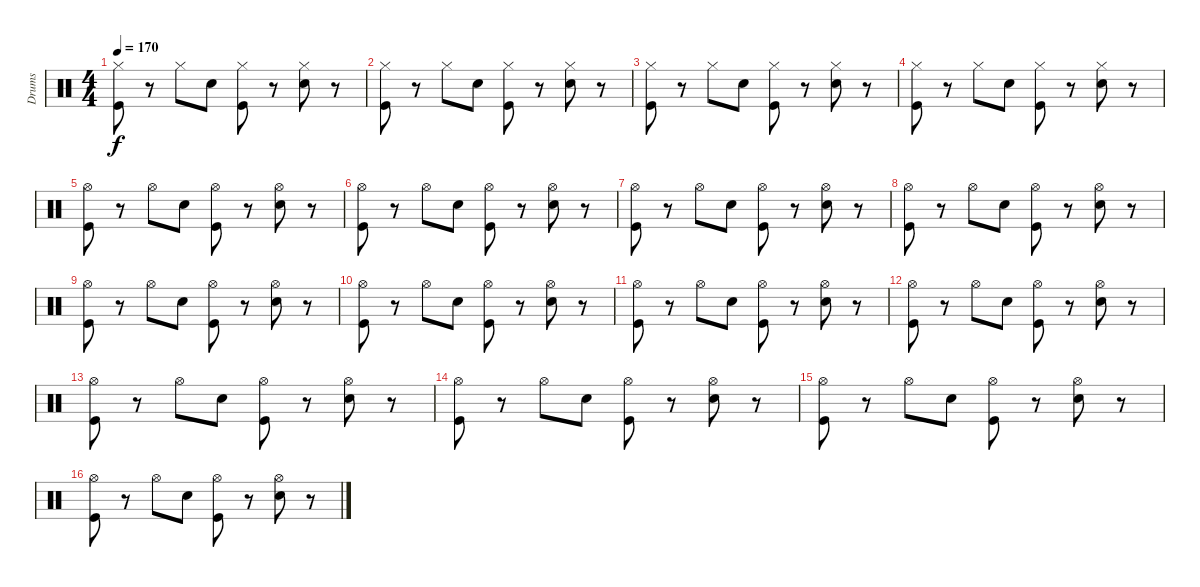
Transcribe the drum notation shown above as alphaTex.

\track ("Drums" "Drums") {instrument percussion}
\staff {score}
\articulation defaults
\ts (4 4)
\tempo 170
\clef neutral
\ks c
("Kick (hit)" "Hi-Hat (closed)").8{dy f} r.8 "Hi-Hat (closed)".8 "Electric Snare (hit)".8 ("Kick (hit)" "Hi-Hat (closed)").8 r.8 ("Electric Snare (hit)" "Hi-Hat (closed)").8 r.8 |
("Kick (hit)" "Hi-Hat (closed)").8 r.8 "Hi-Hat (closed)".8 "Electric Snare (hit)".8 ("Kick (hit)" "Hi-Hat (closed)").8 r.8 ("Electric Snare (hit)" "Hi-Hat (closed)").8 r.8 |
("Kick (hit)" "Hi-Hat (closed)").8 r.8 "Hi-Hat (closed)".8 "Electric Snare (hit)".8 ("Kick (hit)" "Hi-Hat (closed)").8 r.8 ("Electric Snare (hit)" "Hi-Hat (closed)").8 r.8 |
("Kick (hit)" "Hi-Hat (closed)").8 r.8 "Hi-Hat (closed)".8 "Electric Snare (hit)".8 ("Kick (hit)" "Hi-Hat (closed)").8 r.8 ("Electric Snare (hit)" "Hi-Hat (closed)").8 r.8 |
("Kick (hit)" "Hi-Hat (open)").8 r.8 "Hi-Hat (open)".8 "Electric Snare (hit)".8 ("Kick (hit)" "Hi-Hat (open)").8 r.8 ("Electric Snare (hit)" "Hi-Hat (open)").8 r.8 |
("Kick (hit)" "Hi-Hat (open)").8 r.8 "Hi-Hat (open)".8 "Electric Snare (hit)".8 ("Kick (hit)" "Hi-Hat (open)").8 r.8 ("Electric Snare (hit)" "Hi-Hat (open)").8 r.8 |
("Kick (hit)" "Hi-Hat (open)").8 r.8 "Hi-Hat (open)".8 "Electric Snare (hit)".8 ("Kick (hit)" "Hi-Hat (open)").8 r.8 ("Electric Snare (hit)" "Hi-Hat (open)").8 r.8 |
("Kick (hit)" "Hi-Hat (open)").8 r.8 "Hi-Hat (open)".8 "Electric Snare (hit)".8 ("Kick (hit)" "Hi-Hat (open)").8 r.8 ("Electric Snare (hit)" "Hi-Hat (open)").8 r.8 |
("Kick (hit)" "Hi-Hat (open)").8 r.8 "Hi-Hat (open)".8 "Electric Snare (hit)".8 ("Kick (hit)" "Hi-Hat (open)").8 r.8 ("Electric Snare (hit)" "Hi-Hat (open)").8 r.8 |
("Kick (hit)" "Hi-Hat (open)").8 r.8 "Hi-Hat (open)".8 "Electric Snare (hit)".8 ("Kick (hit)" "Hi-Hat (open)").8 r.8 ("Electric Snare (hit)" "Hi-Hat (open)").8 r.8 |
("Kick (hit)" "Hi-Hat (open)").8 r.8 "Hi-Hat (open)".8 "Electric Snare (hit)".8 ("Kick (hit)" "Hi-Hat (open)").8 r.8 ("Electric Snare (hit)" "Hi-Hat (open)").8 r.8 |
("Kick (hit)" "Hi-Hat (open)").8 r.8 "Hi-Hat (open)".8 "Electric Snare (hit)".8 ("Kick (hit)" "Hi-Hat (open)").8 r.8 ("Electric Snare (hit)" "Hi-Hat (open)").8 r.8 |
("Kick (hit)" "Hi-Hat (open)").8 r.8 "Hi-Hat (open)".8 "Electric Snare (hit)".8 ("Kick (hit)" "Hi-Hat (open)").8 r.8 ("Electric Snare (hit)" "Hi-Hat (open)").8 r.8 |
("Kick (hit)" "Hi-Hat (open)").8 r.8 "Hi-Hat (open)".8 "Electric Snare (hit)".8 ("Kick (hit)" "Hi-Hat (open)").8 r.8 ("Electric Snare (hit)" "Hi-Hat (open)").8 r.8 |
("Kick (hit)" "Hi-Hat (open)").8 r.8 "Hi-Hat (open)".8 "Electric Snare (hit)".8 ("Kick (hit)" "Hi-Hat (open)").8 r.8 ("Electric Snare (hit)" "Hi-Hat (open)").8 r.8 |
("Kick (hit)" "Hi-Hat (open)").8 r.8 "Hi-Hat (open)".8 "Electric Snare (hit)".8 ("Kick (hit)" "Hi-Hat (open)").8 r.8 ("Electric Snare (hit)" "Hi-Hat (open)").8 r.8
